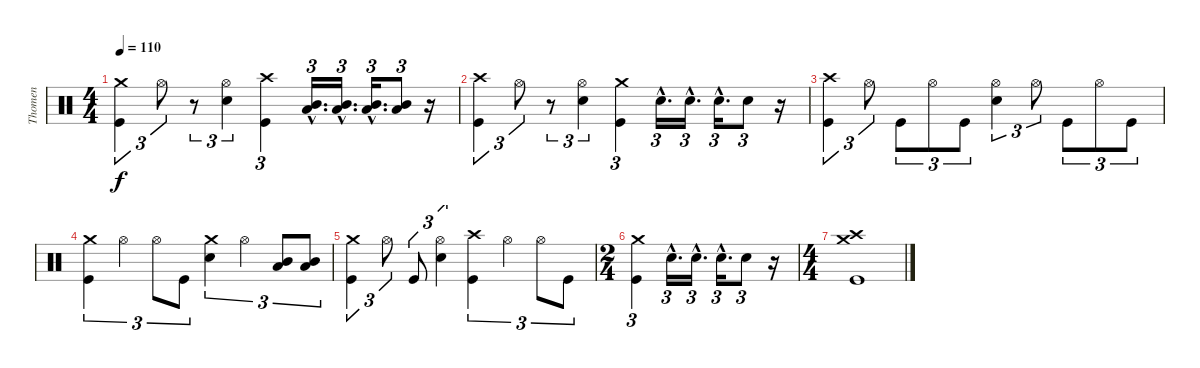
\track ("Thomen" "Thomen") {instrument percussion}
\staff {score}
\articulation defaults
\ts (4 4)
\tempo 110
\clef neutral
\ks c
("Crash medium (hit)" "Kick (hit)").4{tu (3 2) dy f} "Hi-Hat (open)".8{tu (3 2)} r.8{tu (3 2)} ("Hi-Hat (open)" "Snare (hit) 2").4{tu (3 2)} ("Crash high (hit)" "Kick (hit)").4{tu (3 2)} ("Mid Tom (hit)"{hac} "Low Tom (hit)"{hac}).16{d tu (3 2)} ("Mid Tom (hit)"{hac} "Low Tom (hit)"{hac}).16{d tu (3 2)} ("Mid Tom (hit)"{hac} "Low Tom (hit)"{hac}).16{d tu (3 2)} ("Mid Tom (hit)" "Low Tom (hit)").8{tu (3 2)} r.16 |
("Crash high (hit)" "Kick (hit)").4{tu (3 2)} "Hi-Hat (open)".8{tu (3 2)} r.8{tu (3 2)} ("Hi-Hat (open)" "Snare (hit) 2").4{tu (3 2)} ("Crash medium (hit)" "Kick (hit)").4{tu (3 2)} "Snare (hit) 2"{hac}.16{d tu (3 2)} "Snare (hit) 2"{hac}.16{d tu (3 2)} "Snare (hit) 2"{hac}.16{d tu (3 2)} "Snare (hit) 2".8{tu (3 2)} r.16 |
("Crash high (hit)" "Kick (hit)").4{tu (3 2)} "Hi-Hat (open)".8{tu (3 2)} "Kick (hit)".8{tu (3 2)} "Hi-Hat (open)".8{tu (3 2)} "Kick (hit)".8{tu (3 2)} ("Hi-Hat (open)" "Snare (hit) 2").4{tu (3 2)} "Hi-Hat (open)".8{tu (3 2)} "Kick (hit)".8{tu (3 2)} "Hi-Hat (open)".8{tu (3 2)} "Kick (hit)".8{tu (3 2)} |
("Crash medium (hit)" "Kick (hit)").4{tu (3 2)} "Hi-Hat (open)".4{tu (3 2)} "Hi-Hat (open)".8{tu (3 2)} "Kick (hit)".8{tu (3 2)} ("Crash medium (hit)" "Snare (hit) 2").4{tu (3 2)} "Hi-Hat (open)".4{tu (3 2)} ("Mid Tom (hit)" "Low Tom (hit)").8{tu (3 2)} ("Mid Tom (hit)" "Low Tom (hit)").8{tu (3 2)} |
("Crash medium (hit)" "Kick (hit)").4{tu (3 2)} "Hi-Hat (open)".8{tu (3 2)} "Kick (hit)".8{tu (3 2)} ("Hi-Hat (open)" "Snare (hit) 2").4{tu (3 2)} ("Crash high (hit)" "Kick (hit)").4{tu (3 2)} "Hi-Hat (open)".4{tu (3 2)} "Hi-Hat (open)".8{tu (3 2)} "Kick (hit)".8{tu (3 2)} |
\ts (2 4)
("Crash medium (hit)" "Kick (hit)").4{tu (3 2)} "Snare (hit) 2"{hac}.16{d tu (3 2)} "Snare (hit) 2"{hac}.16{d tu (3 2)} "Snare (hit) 2"{hac}.16{d tu (3 2)} "Snare (hit) 2".8{tu (3 2)} r.16 |
\ts (4 4)
("Crash high (hit)" "Crash medium (hit)" "Kick (hit)").1
